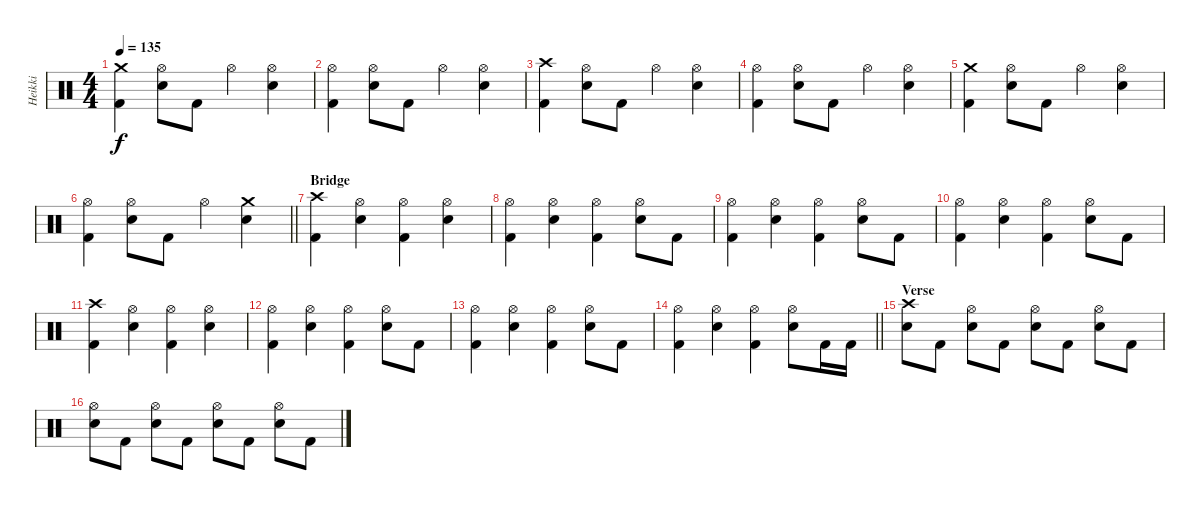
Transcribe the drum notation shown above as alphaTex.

\track ("Heikki" "Heikki") {instrument percussion}
\staff {score}
\articulation defaults
\ts (4 4)
\tempo 135
\clef neutral
\ks c
("Crash medium (hit)" "Kick (hit) 2").4{dy f} ("Hi-Hat (open)" "Electric Snare (hit)").8 "Kick (hit) 2".8 "Hi-Hat (open)".4 ("Hi-Hat (open)" "Electric Snare (hit)").4 |
("Hi-Hat (open)" "Kick (hit) 2").4 ("Hi-Hat (open)" "Electric Snare (hit)").8 "Kick (hit) 2".8 "Hi-Hat (open)".4 ("Hi-Hat (open)" "Electric Snare (hit)").4 |
("Crash high (hit)" "Kick (hit) 2").4 ("Hi-Hat (open)" "Electric Snare (hit)").8 "Kick (hit) 2".8 "Hi-Hat (open)".4 ("Hi-Hat (open)" "Electric Snare (hit)").4 |
("Hi-Hat (open)" "Kick (hit) 2").4 ("Hi-Hat (open)" "Electric Snare (hit)").8 "Kick (hit) 2".8 "Hi-Hat (open)".4 ("Hi-Hat (open)" "Electric Snare (hit)").4 |
("Crash medium (hit)" "Kick (hit) 2").4 ("Hi-Hat (open)" "Electric Snare (hit)").8 "Kick (hit) 2".8 "Hi-Hat (open)".4 ("Hi-Hat (open)" "Electric Snare (hit)").4 |
\barLineRight lightlight
("Hi-Hat (open)" "Kick (hit) 2").4 ("Hi-Hat (open)" "Electric Snare (hit)").8 "Kick (hit) 2".8 "Hi-Hat (open)".4 ("Crash medium (hit)" "Electric Snare (hit)").4 |
\section ("" "Bridge")
("Crash high (hit)" "Kick (hit) 2").4 ("Hi-Hat (open)" "Electric Snare (hit)").4 ("Hi-Hat (open)" "Kick (hit) 2").4 ("Hi-Hat (open)" "Electric Snare (hit)").4 |
("Hi-Hat (open)" "Kick (hit) 2").4 ("Hi-Hat (open)" "Electric Snare (hit)").4 ("Hi-Hat (open)" "Kick (hit) 2").4 ("Hi-Hat (open)" "Electric Snare (hit)").8 "Kick (hit) 2".8 |
("Hi-Hat (open)" "Kick (hit) 2").4 ("Hi-Hat (open)" "Electric Snare (hit)").4 ("Hi-Hat (open)" "Kick (hit) 2").4 ("Hi-Hat (open)" "Electric Snare (hit)").8 "Kick (hit) 2".8 |
("Hi-Hat (open)" "Kick (hit) 2").4 ("Hi-Hat (open)" "Electric Snare (hit)").4 ("Hi-Hat (open)" "Kick (hit) 2").4 ("Hi-Hat (open)" "Electric Snare (hit)").8 "Kick (hit) 2".8 |
("Crash high (hit)" "Kick (hit) 2").4 ("Hi-Hat (open)" "Electric Snare (hit)").4 ("Hi-Hat (open)" "Kick (hit) 2").4 ("Hi-Hat (open)" "Electric Snare (hit)").4 |
("Hi-Hat (open)" "Kick (hit) 2").4 ("Hi-Hat (open)" "Electric Snare (hit)").4 ("Hi-Hat (open)" "Kick (hit) 2").4 ("Hi-Hat (open)" "Electric Snare (hit)").8 "Kick (hit) 2".8 |
("Hi-Hat (open)" "Kick (hit) 2").4 ("Hi-Hat (open)" "Electric Snare (hit)").4 ("Hi-Hat (open)" "Kick (hit) 2").4 ("Hi-Hat (open)" "Electric Snare (hit)").8 "Kick (hit) 2".8 |
\barLineRight lightlight
("Hi-Hat (open)" "Kick (hit) 2").4 ("Hi-Hat (open)" "Electric Snare (hit)").4 ("Hi-Hat (open)" "Kick (hit) 2").4 ("Hi-Hat (open)" "Electric Snare (hit)").8 "Kick (hit) 2".16 "Kick (hit) 2".16 |
\section ("" "Verse")
("Crash high (hit)" "Electric Snare (hit)").8 "Kick (hit) 2".8 ("Hi-Hat (open)" "Electric Snare (hit)").8 "Kick (hit) 2".8 ("Hi-Hat (open)" "Electric Snare (hit)").8 "Kick (hit) 2".8 ("Hi-Hat (open)" "Electric Snare (hit)").8 "Kick (hit) 2".8 |
("Hi-Hat (open)" "Electric Snare (hit)").8 "Kick (hit) 2".8 ("Hi-Hat (open)" "Electric Snare (hit)").8 "Kick (hit) 2".8 ("Hi-Hat (open)" "Electric Snare (hit)").8 "Kick (hit) 2".8 ("Hi-Hat (open)" "Electric Snare (hit)").8 "Kick (hit) 2".8
